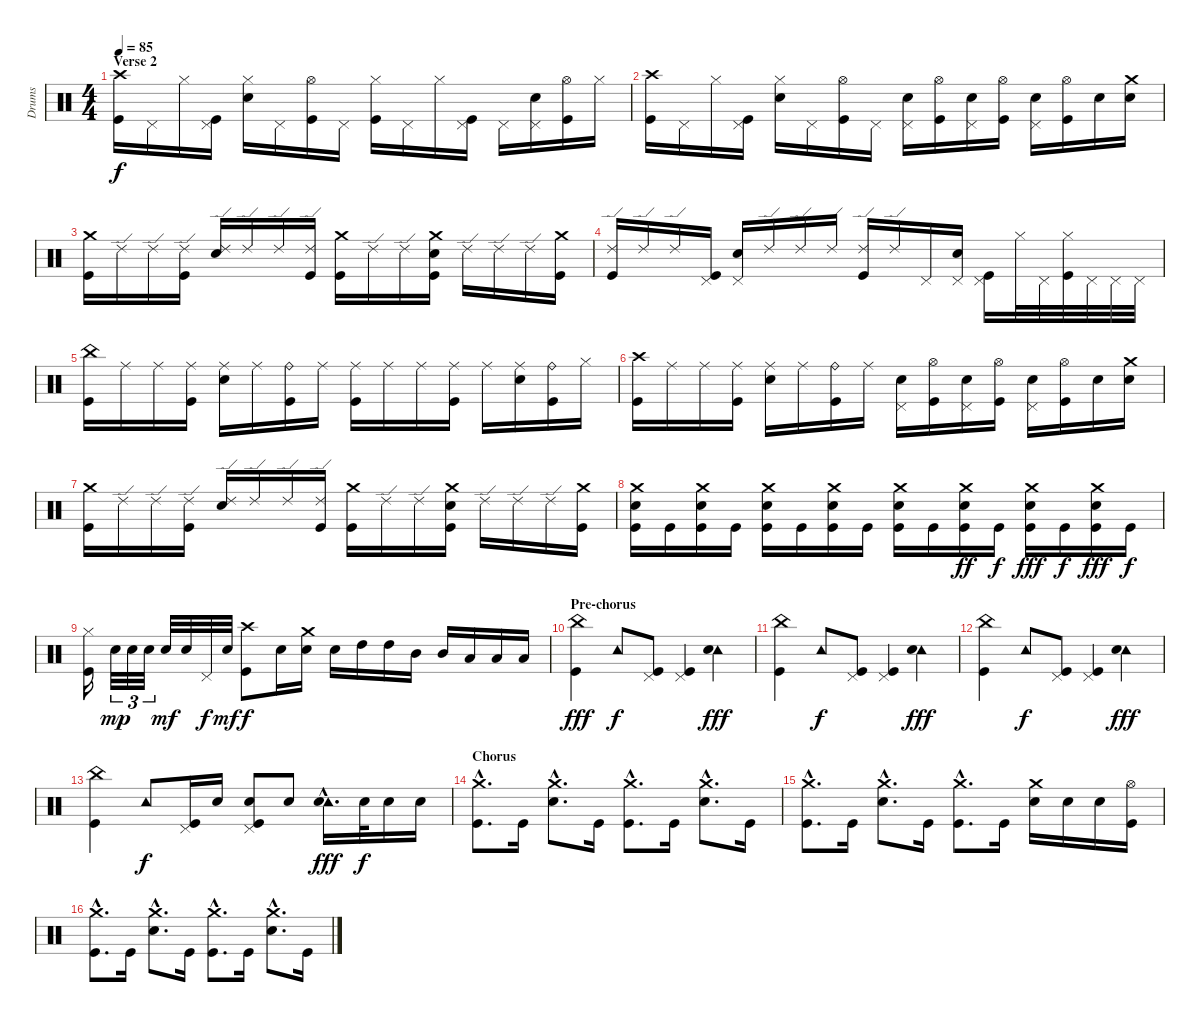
\track ("Drums" "Drums") {instrument percussion}
\staff {score}
\articulation defaults
\ts (4 4)
\section ("" "Verse 2")
\tempo 85
\clef neutral
\ks c
("Crash high (hit)" "Kick (hit)").16{dy f} "Pedal Hi-Hat (hit)".16 "Hi-Hat (closed)".16 ("Pedal Hi-Hat (hit)" "Kick (hit)").16 ("Hi-Hat (closed)" "Electric Snare (hit)").16 "Pedal Hi-Hat (hit)".16 ("Hi-Hat (open)" "Kick (hit)").16 "Pedal Hi-Hat (hit)".16 ("Hi-Hat (closed)" "Kick (hit)").16 "Pedal Hi-Hat (hit)".16 "Hi-Hat (closed)".16 ("Pedal Hi-Hat (hit)" "Kick (hit)").16 "Pedal Hi-Hat (hit)".16 ("Pedal Hi-Hat (hit)" "Electric Snare (hit)").16 ("Hi-Hat (open)" "Kick (hit)").16 "Hi-Hat (closed)".16 |
("Crash high (hit)" "Kick (hit)").16 "Pedal Hi-Hat (hit)".16 "Hi-Hat (closed)".16 ("Pedal Hi-Hat (hit)" "Kick (hit)").16 ("Hi-Hat (closed)" "Electric Snare (hit)").16 "Pedal Hi-Hat (hit)".16 ("Hi-Hat (open)" "Kick (hit)").16 "Pedal Hi-Hat (hit)".16 ("Pedal Hi-Hat (hit)" "Electric Snare (hit)").16 ("Hi-Hat (open)" "Kick (hit)").16 ("Pedal Hi-Hat (hit)" "Electric Snare (hit)").16 ("Hi-Hat (open)" "Kick (hit)").16 ("Pedal Hi-Hat (hit)" "Electric Snare (hit)").16 ("Hi-Hat (open)" "Kick (hit)").16 "Electric Snare (hit)".16 ("Crash medium (hit)" "Electric Snare (hit)").16 |
("Crash medium (hit)" "Kick (hit)").16 "Ride (edge) 2".16 "Ride (edge) 2".16 ("Ride (edge) 2" "Kick (hit)").16 ("Ride (edge) 2" "Electric Snare (hit)").16 "Ride (edge) 2".16 "Ride (edge) 2".16 ("Ride (edge) 2" "Kick (hit)").16 ("Crash medium (hit)" "Kick (hit)").16 "Ride (edge) 2".16 "Ride (edge) 2".16 ("Crash medium (hit)" "Electric Snare (hit)" "Kick (hit)").16 "Ride (edge) 2".16 "Ride (edge) 2".16 "Ride (edge) 2".16 ("Crash medium (hit)" "Kick (hit)").16 |
("Ride (edge) 2" "Kick (hit)").16 "Ride (edge) 2".16 "Ride (edge) 2".16 ("Pedal Hi-Hat (hit)" "Kick (hit)").16 ("Pedal Hi-Hat (hit)" "Electric Snare (hit)").16 "Ride (edge) 2".16 "Ride (edge) 2".16 "Ride (edge) 2".16 ("Ride (edge) 2" "Kick (hit)").16 "Ride (edge) 2".16 "Pedal Hi-Hat (hit)".16 ("Pedal Hi-Hat (hit)" "Electric Snare (hit)").16 ("Pedal Hi-Hat (hit)" "Kick (hit)").16 "Hi-Hat (closed)".32 "Pedal Hi-Hat (hit)".32 ("Hi-Hat (closed)" "Kick (hit)").32 "Pedal Hi-Hat (hit)".32 "Pedal Hi-Hat (hit)".32 "Pedal Hi-Hat (hit)".32 |
("China (hit)" "Kick (hit)").16 "Ride (middle)".16 "Ride (middle)".16 ("Ride (middle)" "Kick (hit)").16 ("Ride (middle)" "Electric Snare (hit)").16 "Ride (middle)".16 ("Ride (bell)" "Kick (hit)").16 "Ride (middle)".16 ("Ride (middle)" "Kick (hit)").16 "Ride (middle)".16 "Ride (middle)".16 ("Ride (middle)" "Kick (hit)").16 "Ride (middle)".16 ("Ride (middle)" "Electric Snare (hit)").16 ("Ride (bell)" "Kick (hit)").16 "Hi-Hat (closed)".16 |
("Crash high (hit)" "Kick (hit)").16 "Ride (middle)".16 "Ride (middle)".16 ("Ride (middle)" "Kick (hit)").16 ("Ride (middle)" "Electric Snare (hit)").16 "Ride (middle)".16 ("Ride (bell)" "Kick (hit)").16 "Ride (middle)".16 ("Pedal Hi-Hat (hit)" "Electric Snare (hit)").16 ("Hi-Hat (open)" "Kick (hit)").16 ("Pedal Hi-Hat (hit)" "Electric Snare (hit)").16 ("Hi-Hat (open)" "Kick (hit)").16 ("Pedal Hi-Hat (hit)" "Electric Snare (hit)").16 ("Hi-Hat (open)" "Kick (hit)").16 "Electric Snare (hit)".16 ("Crash medium (hit)" "Electric Snare (hit)").16 |
("Crash medium (hit)" "Kick (hit)").16 "Ride (edge) 2".16 "Ride (edge) 2".16 ("Ride (edge) 2" "Kick (hit)").16 ("Ride (edge) 2" "Electric Snare (hit)").16 "Ride (edge) 2".16 "Ride (edge) 2".16 ("Ride (edge) 2" "Kick (hit)").16 ("Crash medium (hit)" "Kick (hit)").16 "Ride (edge) 2".16 "Ride (edge) 2".16 ("Crash medium (hit)" "Electric Snare (hit)" "Kick (hit)").16 "Ride (edge) 2".16 "Ride (edge) 2".16 "Ride (edge) 2".16 ("Crash medium (hit)" "Kick (hit)").16 |
("Crash medium (hit)" "Electric Snare (hit)" "Kick (hit)").16 "Kick (hit)".16 ("Crash medium (hit)" "Electric Snare (hit)" "Kick (hit)").16 "Kick (hit)".16 ("Crash medium (hit)" "Electric Snare (hit)" "Kick (hit)").16 "Kick (hit)".16 ("Crash medium (hit)" "Electric Snare (hit)" "Kick (hit)").16 "Kick (hit)".16 ("Crash medium (hit)" "Electric Snare (hit)" "Kick (hit)").16 "Kick (hit)".16 ("Crash medium (hit)" "Electric Snare (hit)" "Kick (hit)").16{dy ff} "Kick (hit)".16{dy f} ("Crash medium (hit)" "Electric Snare (hit)" "Kick (hit)").16{dy fff} "Kick (hit)".16{dy f} ("Crash medium (hit)" "Electric Snare (hit)" "Kick (hit)").16{dy fff} "Kick (hit)".16{dy f} |
("Hi-Hat (closed)" "Kick (hit)").16 "Electric Snare (hit)".32{tu (3 2) dy mp} "Electric Snare (hit)".32{tu (3 2)} "Electric Snare (hit)".32{tu (3 2)} "Electric Snare (hit)".32{dy mf} "Electric Snare (hit)".32 "Pedal Hi-Hat (hit)".32{dy f} "Electric Snare (hit)".32{dy mf} ("Crash high (hit)" "Kick (hit)").8{dy f} "Electric Snare (hit)".16 ("Crash medium (hit)" "Electric Snare (hit)").16 "Electric Snare (hit)".16 "High Tom (hit)".16 "High Tom (hit)".16 "Mid Tom (hit)".16 "Mid Tom (hit)".16 "Low Tom (hit)".16 "Low Tom (hit)".16 "Low Floor Tom (hit)".16 |
\section ("" "Pre-chorus")
("China (hit)" "Kick (hit)").4{dy fff} "Tambourine (hit)".8{dy f} ("Pedal Hi-Hat (hit)" "Kick (hit)").8 ("Pedal Hi-Hat (hit)" "Kick (hit)").4 ("Tambourine (hit)" "Electric Snare (hit)").4{dy fff} |
("China (hit)" "Kick (hit)").4 "Tambourine (hit)".8{dy f} ("Pedal Hi-Hat (hit)" "Kick (hit)").8 ("Pedal Hi-Hat (hit)" "Kick (hit)").4 ("Tambourine (hit)" "Electric Snare (hit)").4{dy fff} |
("China (hit)" "Kick (hit)").4 "Tambourine (hit)".8{dy f} ("Pedal Hi-Hat (hit)" "Kick (hit)").8 ("Pedal Hi-Hat (hit)" "Kick (hit)").4 ("Tambourine (hit)" "Electric Snare (hit)").4{dy fff} |
("China (hit)" "Kick (hit)").4 "Tambourine (hit)".8{dy f} ("Pedal Hi-Hat (hit)" "Kick (hit)").16 "Electric Snare (hit)".16 ("Electric Snare (hit)" "Pedal Hi-Hat (hit)" "Kick (hit)").8 "Electric Snare (hit)".8 ("Tambourine (hit)"{hac} "Electric Snare (hit)"{hac}).16{d dy fff} "Electric Snare (hit)".32{dy f} "Electric Snare (hit)".16 "Electric Snare (hit)".16 |
\section ("" "Chorus")
("Crash medium (hit)"{hac} "Kick (hit)"{hac}).8{d} "Kick (hit)".16 ("Crash medium (hit)"{hac} "Electric Snare (hit)"{hac}).8{d} "Kick (hit)".16 ("Crash medium (hit)"{hac} "Kick (hit)"{hac}).8{d} "Kick (hit)".16 ("Crash medium (hit)"{hac} "Electric Snare (hit)"{hac}).8{d} "Kick (hit)".16 |
("Crash medium (hit)"{hac} "Kick (hit)"{hac}).8{d} "Kick (hit)".16 ("Crash medium (hit)"{hac} "Electric Snare (hit)"{hac}).8{d} "Kick (hit)".16 ("Crash medium (hit)"{hac} "Kick (hit)"{hac}).8{d} "Kick (hit)".16 ("Crash medium (hit)" "Electric Snare (hit)").16 "Electric Snare (hit)".16 "Electric Snare (hit)".16 ("Hi-Hat (open)" "Kick (hit)").16 |
("Crash medium (hit)"{hac} "Kick (hit)"{hac}).8{d} "Kick (hit)".16 ("Crash medium (hit)"{hac} "Electric Snare (hit)"{hac}).8{d} "Kick (hit)".16 ("Crash medium (hit)"{hac} "Kick (hit)"{hac}).8{d} "Kick (hit)".16 ("Crash medium (hit)"{hac} "Electric Snare (hit)"{hac}).8{d} "Kick (hit)".16
